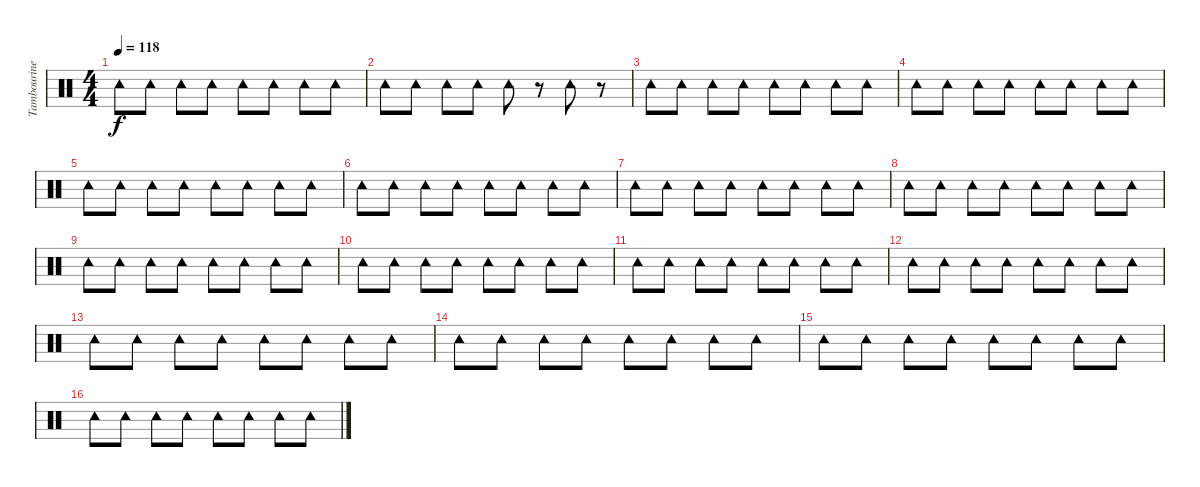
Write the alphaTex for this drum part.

\track ("Tambourine" "Tambourine") {instrument percussion}
\staff {score}
\articulation defaults
\ts (4 4)
\tempo 118
\clef neutral
\ks c "Tambourine (hit)".8{dy f} "Tambourine (hit)".8 "Tambourine (hit)".8 "Tambourine (hit)".8 "Tambourine (hit)".8 "Tambourine (hit)".8 "Tambourine (hit)".8 "Tambourine (hit)".8
|
"Tambourine (hit)".8 "Tambourine (hit)".8 "Tambourine (hit)".8 "Tambourine (hit)".8 "Tambourine (hit)".8 r.8 "Tambourine (hit)".8 r.8 |
"Tambourine (hit)".8 "Tambourine (hit)".8 "Tambourine (hit)".8 "Tambourine (hit)".8 "Tambourine (hit)".8 "Tambourine (hit)".8 "Tambourine (hit)".8 "Tambourine (hit)".8 |
"Tambourine (hit)".8 "Tambourine (hit)".8 "Tambourine (hit)".8 "Tambourine (hit)".8 "Tambourine (hit)".8 "Tambourine (hit)".8 "Tambourine (hit)".8 "Tambourine (hit)".8 |
"Tambourine (hit)".8 "Tambourine (hit)".8 "Tambourine (hit)".8 "Tambourine (hit)".8 "Tambourine (hit)".8 "Tambourine (hit)".8 "Tambourine (hit)".8 "Tambourine (hit)".8 |
"Tambourine (hit)".8 "Tambourine (hit)".8 "Tambourine (hit)".8 "Tambourine (hit)".8 "Tambourine (hit)".8 "Tambourine (hit)".8 "Tambourine (hit)".8 "Tambourine (hit)".8 |
"Tambourine (hit)".8 "Tambourine (hit)".8 "Tambourine (hit)".8 "Tambourine (hit)".8 "Tambourine (hit)".8 "Tambourine (hit)".8 "Tambourine (hit)".8 "Tambourine (hit)".8 |
"Tambourine (hit)".8 "Tambourine (hit)".8 "Tambourine (hit)".8 "Tambourine (hit)".8 "Tambourine (hit)".8 "Tambourine (hit)".8 "Tambourine (hit)".8 "Tambourine (hit)".8 |
"Tambourine (hit)".8 "Tambourine (hit)".8 "Tambourine (hit)".8 "Tambourine (hit)".8 "Tambourine (hit)".8 "Tambourine (hit)".8 "Tambourine (hit)".8 "Tambourine (hit)".8 |
"Tambourine (hit)".8 "Tambourine (hit)".8 "Tambourine (hit)".8 "Tambourine (hit)".8 "Tambourine (hit)".8 "Tambourine (hit)".8 "Tambourine (hit)".8 "Tambourine (hit)".8 |
"Tambourine (hit)".8 "Tambourine (hit)".8 "Tambourine (hit)".8 "Tambourine (hit)".8 "Tambourine (hit)".8 "Tambourine (hit)".8 "Tambourine (hit)".8 "Tambourine (hit)".8 |
"Tambourine (hit)".8 "Tambourine (hit)".8 "Tambourine (hit)".8 "Tambourine (hit)".8 "Tambourine (hit)".8 "Tambourine (hit)".8 "Tambourine (hit)".8 "Tambourine (hit)".8 |
"Tambourine (hit)".8 "Tambourine (hit)".8 "Tambourine (hit)".8 "Tambourine (hit)".8 "Tambourine (hit)".8 "Tambourine (hit)".8 "Tambourine (hit)".8 "Tambourine (hit)".8 |
"Tambourine (hit)".8 "Tambourine (hit)".8 "Tambourine (hit)".8 "Tambourine (hit)".8 "Tambourine (hit)".8 "Tambourine (hit)".8 "Tambourine (hit)".8 "Tambourine (hit)".8 |
"Tambourine (hit)".8 "Tambourine (hit)".8 "Tambourine (hit)".8 "Tambourine (hit)".8 "Tambourine (hit)".8 "Tambourine (hit)".8 "Tambourine (hit)".8 "Tambourine (hit)".8 |
"Tambourine (hit)".8 "Tambourine (hit)".8 "Tambourine (hit)".8 "Tambourine (hit)".8 "Tambourine (hit)".8 "Tambourine (hit)".8 "Tambourine (hit)".8 "Tambourine (hit)".8
